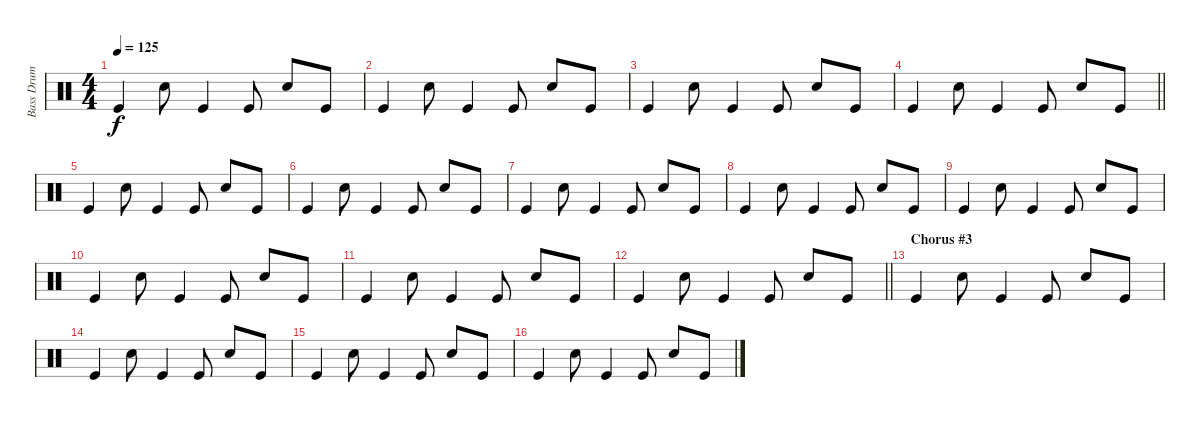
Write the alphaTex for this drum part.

\track ("Bass Drum and Clap" "Bass Drum ") {instrument percussion}
\staff {score}
\articulation defaults
\ts (4 4)
\tempo 125
\clef neutral
\ks c "Kick (hit)".4{dy f} "Hand Clap (hit)".8 "Kick (hit)".4 "Kick (hit)".8 "Hand Clap (hit)".8 "Kick (hit)".8
|
"Kick (hit)".4 "Hand Clap (hit)".8 "Kick (hit)".4 "Kick (hit)".8 "Hand Clap (hit)".8 "Kick (hit)".8 |
"Kick (hit)".4 "Hand Clap (hit)".8 "Kick (hit)".4 "Kick (hit)".8 "Hand Clap (hit)".8 "Kick (hit)".8 |
\barLineRight lightlight "Kick (hit)".4 "Hand Clap (hit)".8 "Kick (hit)".4 "Kick (hit)".8 "Hand Clap (hit)".8 "Kick (hit)".8
|
"Kick (hit)".4 "Hand Clap (hit)".8 "Kick (hit)".4 "Kick (hit)".8 "Hand Clap (hit)".8 "Kick (hit)".8 |
"Kick (hit)".4 "Hand Clap (hit)".8 "Kick (hit)".4 "Kick (hit)".8 "Hand Clap (hit)".8 "Kick (hit)".8 |
"Kick (hit)".4 "Hand Clap (hit)".8 "Kick (hit)".4 "Kick (hit)".8 "Hand Clap (hit)".8 "Kick (hit)".8 |
"Kick (hit)".4 "Hand Clap (hit)".8 "Kick (hit)".4 "Kick (hit)".8 "Hand Clap (hit)".8 "Kick (hit)".8 |
"Kick (hit)".4 "Hand Clap (hit)".8 "Kick (hit)".4 "Kick (hit)".8 "Hand Clap (hit)".8 "Kick (hit)".8 |
"Kick (hit)".4 "Hand Clap (hit)".8 "Kick (hit)".4 "Kick (hit)".8 "Hand Clap (hit)".8 "Kick (hit)".8 |
"Kick (hit)".4 "Hand Clap (hit)".8 "Kick (hit)".4 "Kick (hit)".8 "Hand Clap (hit)".8 "Kick (hit)".8 |
\barLineRight lightlight "Kick (hit)".4 "Hand Clap (hit)".8 "Kick (hit)".4 "Kick (hit)".8 "Hand Clap (hit)".8 "Kick (hit)".8
|
\section ("" "Chorus #3")
"Kick (hit)".4 "Hand Clap (hit)".8 "Kick (hit)".4 "Kick (hit)".8 "Hand Clap (hit)".8 "Kick (hit)".8 |
"Kick (hit)".4 "Hand Clap (hit)".8 "Kick (hit)".4 "Kick (hit)".8 "Hand Clap (hit)".8 "Kick (hit)".8 |
"Kick (hit)".4 "Hand Clap (hit)".8 "Kick (hit)".4 "Kick (hit)".8 "Hand Clap (hit)".8 "Kick (hit)".8 |
"Kick (hit)".4 "Hand Clap (hit)".8 "Kick (hit)".4 "Kick (hit)".8 "Hand Clap (hit)".8 "Kick (hit)".8
